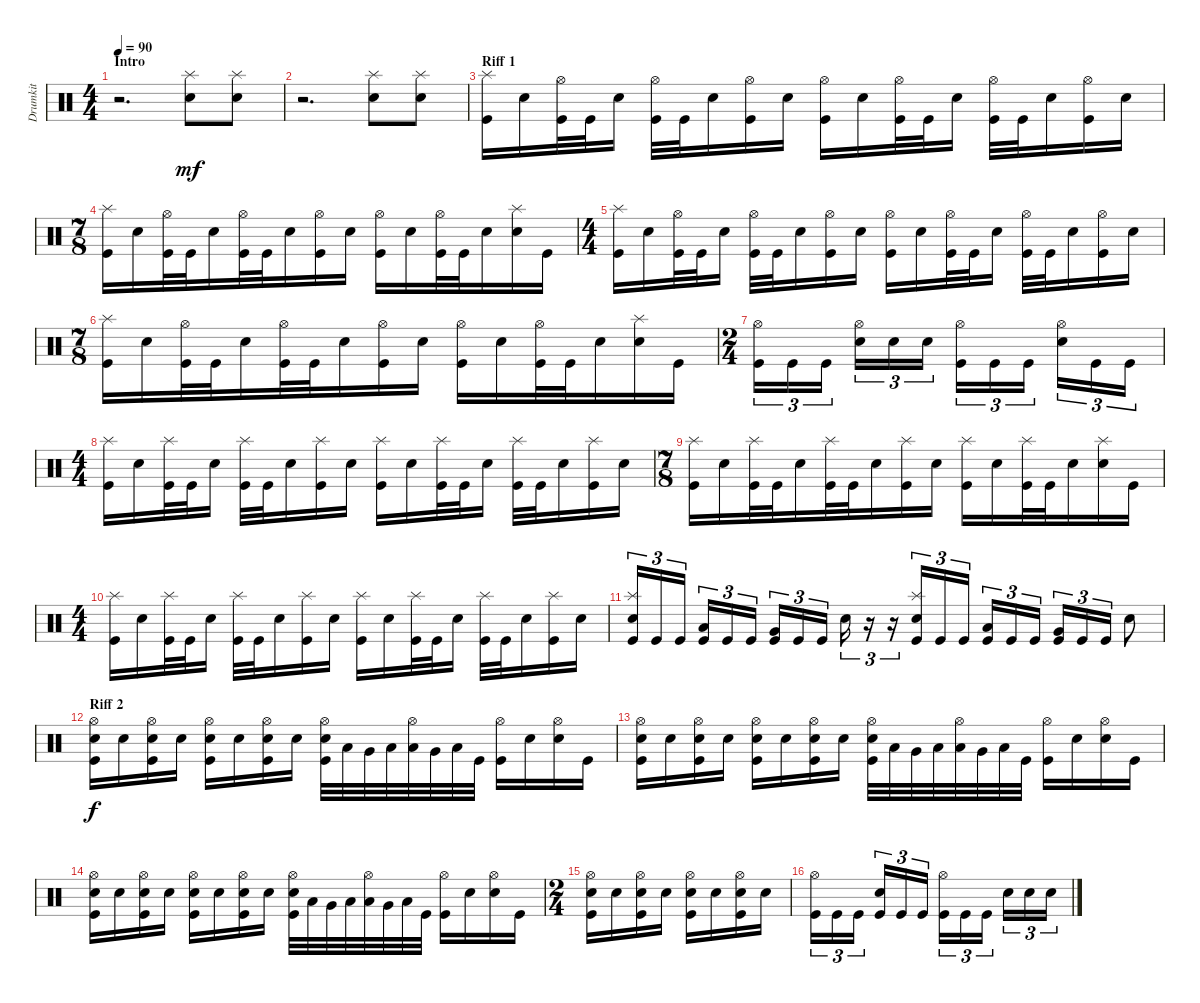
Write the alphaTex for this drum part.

\track ("Drumkit" "Drumkit") {instrument percussion}
\staff {score}
\articulation defaults
\ts (4 4)
\section ("" "Intro")
\tempo 90
\clef neutral
\ks c
r.2{d dy mf} ("Snare (hit) 2" "Splash (hit)").8 ("Snare (hit) 2" "Splash (hit)").8 |
r.2{d} ("Snare (hit) 2" "Splash (hit)").8 ("Snare (hit) 2" "Splash (hit)").8 |
\section ("" "Riff 1")
("Kick (hit)" "Splash (hit)").16 "Snare (hit) 2".16 ("Kick (hit)" "Hi-Hat (open)").32 "Kick (hit)".32 "Snare (hit) 2".16 ("Kick (hit)" "Hi-Hat (open)").32 "Kick (hit)".32 "Snare (hit) 2".16 ("Kick (hit)" "Hi-Hat (open)").16 "Snare (hit) 2".16 ("Kick (hit)" "Hi-Hat (open)").16 "Snare (hit) 2".16 ("Kick (hit)" "Hi-Hat (open)").32 "Kick (hit)".32 "Snare (hit) 2".16 ("Kick (hit)" "Hi-Hat (open)").32 "Kick (hit)".32 "Snare (hit) 2".16 ("Kick (hit)" "Hi-Hat (open)").16 "Snare (hit) 2".16 |
\ts (7 8)
("Kick (hit)" "Splash (hit)").16 "Snare (hit) 2".16 ("Kick (hit)" "Hi-Hat (open)").32 "Kick (hit)".32 "Snare (hit) 2".16 ("Kick (hit)" "Hi-Hat (open)").32 "Kick (hit)".32 "Snare (hit) 2".16 ("Kick (hit)" "Hi-Hat (open)").16 "Snare (hit) 2".16 ("Kick (hit)" "Hi-Hat (open)").16 "Snare (hit) 2".16 ("Kick (hit)" "Hi-Hat (open)").32 "Kick (hit)".32 "Snare (hit) 2".16 ("Splash (hit)" "Snare (hit) 2").16 "Kick (hit)".16 |
\ts (4 4)
("Kick (hit)" "Splash (hit)").16 "Snare (hit) 2".16 ("Kick (hit)" "Hi-Hat (open)").32 "Kick (hit)".32 "Snare (hit) 2".16 ("Kick (hit)" "Hi-Hat (open)").32 "Kick (hit)".32 "Snare (hit) 2".16 ("Kick (hit)" "Hi-Hat (open)").16 "Snare (hit) 2".16 ("Kick (hit)" "Hi-Hat (open)").16 "Snare (hit) 2".16 ("Kick (hit)" "Hi-Hat (open)").32 "Kick (hit)".32 "Snare (hit) 2".16 ("Kick (hit)" "Hi-Hat (open)").32 "Kick (hit)".32 "Snare (hit) 2".16 ("Kick (hit)" "Hi-Hat (open)").16 "Snare (hit) 2".16 |
\ts (7 8)
("Kick (hit)" "Splash (hit)").16 "Snare (hit) 2".16 ("Kick (hit)" "Hi-Hat (open)").32 "Kick (hit)".32 "Snare (hit) 2".16 ("Kick (hit)" "Hi-Hat (open)").32 "Kick (hit)".32 "Snare (hit) 2".16 ("Kick (hit)" "Hi-Hat (open)").16 "Snare (hit) 2".16 ("Kick (hit)" "Hi-Hat (open)").16 "Snare (hit) 2".16 ("Kick (hit)" "Hi-Hat (open)").32 "Kick (hit)".32 "Snare (hit) 2".16 ("Splash (hit)" "Snare (hit) 2").16 "Kick (hit)".16 |
\ts (2 4)
("Kick (hit)" "Hi-Hat (open)").16{tu (3 2)} "Kick (hit)".16{tu (3 2)} "Kick (hit)".16{tu (3 2)} ("Snare (hit) 2" "Hi-Hat (open)").16{tu (3 2)} "Snare (hit) 2".16{tu (3 2)} "Snare (hit) 2".16{tu (3 2)} ("Kick (hit)" "Hi-Hat (open)").16{tu (3 2)} "Kick (hit)".16{tu (3 2)} "Kick (hit)".16{tu (3 2)} ("Snare (hit) 2" "Hi-Hat (open)").16{tu (3 2)} "Kick (hit)".16{tu (3 2)} "Kick (hit)".16{tu (3 2)} |
\ts (4 4)
("Kick (hit)" "Splash (hit)").16 "Snare (hit) 2".16 ("Kick (hit)" "Splash (hit)").32 "Kick (hit)".32 "Snare (hit) 2".16 ("Kick (hit)" "Splash (hit)").32 "Kick (hit)".32 "Snare (hit) 2".16 ("Kick (hit)" "Splash (hit)").16 "Snare (hit) 2".16 ("Kick (hit)" "Splash (hit)").16 "Snare (hit) 2".16 ("Kick (hit)" "Splash (hit)").32 "Kick (hit)".32 "Snare (hit) 2".16 ("Kick (hit)" "Splash (hit)").32 "Kick (hit)".32 "Snare (hit) 2".16 ("Kick (hit)" "Splash (hit)").16 "Snare (hit) 2".16 |
\ts (7 8)
("Kick (hit)" "Splash (hit)").16 "Snare (hit) 2".16 ("Kick (hit)" "Splash (hit)").32 "Kick (hit)".32 "Snare (hit) 2".16 ("Kick (hit)" "Splash (hit)").32 "Kick (hit)".32 "Snare (hit) 2".16 ("Kick (hit)" "Splash (hit)").16 "Snare (hit) 2".16 ("Kick (hit)" "Splash (hit)").16 "Snare (hit) 2".16 ("Kick (hit)" "Splash (hit)").32 "Kick (hit)".32 "Snare (hit) 2".16 ("Splash (hit)" "Snare (hit) 2").16 "Kick (hit)".16 |
\ts (4 4)
("Kick (hit)" "Splash (hit)").16 "Snare (hit) 2".16 ("Kick (hit)" "Splash (hit)").32 "Kick (hit)".32 "Snare (hit) 2".16 ("Kick (hit)" "Splash (hit)").32 "Kick (hit)".32 "Snare (hit) 2".16 ("Kick (hit)" "Splash (hit)").16 "Snare (hit) 2".16 ("Kick (hit)" "Splash (hit)").16 "Snare (hit) 2".16 ("Kick (hit)" "Splash (hit)").32 "Kick (hit)".32 "Snare (hit) 2".16 ("Kick (hit)" "Splash (hit)").32 "Kick (hit)".32 "Snare (hit) 2".16 ("Kick (hit)" "Splash (hit)").16 "Snare (hit) 2".16 |
("Snare (hit) 2" "Splash (hit)" "Kick (hit)").16{tu (3 2)} "Kick (hit)".16{tu (3 2)} "Kick (hit)".16{tu (3 2)} ("Low Tom (hit)" "Kick (hit)").16{tu (3 2)} "Kick (hit)".16{tu (3 2)} "Kick (hit)".16{tu (3 2)} ("Very Low Tom (hit)" "Kick (hit)").16{tu (3 2)} "Kick (hit)".16{tu (3 2)} "Kick (hit)".16{tu (3 2)} "Snare (hit) 2".16{tu (3 2)} r.16{tu (3 2)} r.16{tu (3 2)} ("Snare (hit) 2" "Splash (hit)" "Kick (hit)").16{tu (3 2)} "Kick (hit)".16{tu (3 2)} "Kick (hit)".16{tu (3 2)} ("Low Tom (hit)" "Kick (hit)").16{tu (3 2)} "Kick (hit)".16{tu (3 2)} "Kick (hit)".16{tu (3 2)} ("Very Low Tom (hit)" "Kick (hit)").16{tu (3 2)} "Kick (hit)".16{tu (3 2)} "Kick (hit)".16{tu (3 2)} "Snare (hit) 2".8 |
\section ("" "Riff 2")
("Snare (hit) 2" "Hi-Hat (open)" "Kick (hit)").16{dy f} "Snare (hit) 2".16 ("Snare (hit) 2" "Hi-Hat (open)" "Kick (hit)").16 "Snare (hit) 2".16 ("Snare (hit) 2" "Hi-Hat (open)" "Kick (hit)").16 "Snare (hit) 2".16 ("Snare (hit) 2" "Hi-Hat (open)" "Kick (hit)").16 "Snare (hit) 2".16 ("Snare (hit) 2" "Kick (hit)" "Hi-Hat (open)").32 "Low Tom (hit)".32 "Very Low Tom (hit)".32 "Low Floor Tom (hit)".32 ("Low Tom (hit)" "Hi-Hat (open)").32 "Very Low Tom (hit)".32 "Low Floor Tom (hit)".32 "Kick (hit)".32 ("Hi-Hat (open)" "Kick (hit)").16 "Snare (hit) 2".16 ("Snare (hit) 2" "Hi-Hat (open)").16 "Kick (hit)".16 |
("Snare (hit) 2" "Hi-Hat (open)" "Kick (hit)").16 "Snare (hit) 2".16 ("Snare (hit) 2" "Hi-Hat (open)" "Kick (hit)").16 "Snare (hit) 2".16 ("Snare (hit) 2" "Hi-Hat (open)" "Kick (hit)").16 "Snare (hit) 2".16 ("Snare (hit) 2" "Hi-Hat (open)" "Kick (hit)").16 "Snare (hit) 2".16 ("Snare (hit) 2" "Kick (hit)" "Hi-Hat (open)").32 "Low Tom (hit)".32 "Very Low Tom (hit)".32 "Low Floor Tom (hit)".32 ("Low Tom (hit)" "Hi-Hat (open)").32 "Very Low Tom (hit)".32 "Low Floor Tom (hit)".32 "Kick (hit)".32 ("Hi-Hat (open)" "Kick (hit)").16 "Snare (hit) 2".16 ("Snare (hit) 2" "Hi-Hat (open)").16 "Kick (hit)".16 |
("Snare (hit) 2" "Hi-Hat (open)" "Kick (hit)").16 "Snare (hit) 2".16 ("Snare (hit) 2" "Hi-Hat (open)" "Kick (hit)").16 "Snare (hit) 2".16 ("Snare (hit) 2" "Hi-Hat (open)" "Kick (hit)").16 "Snare (hit) 2".16 ("Snare (hit) 2" "Hi-Hat (open)" "Kick (hit)").16 "Snare (hit) 2".16 ("Snare (hit) 2" "Kick (hit)" "Hi-Hat (open)").32 "Low Tom (hit)".32 "Very Low Tom (hit)".32 "Low Floor Tom (hit)".32 ("Low Tom (hit)" "Hi-Hat (open)").32 "Very Low Tom (hit)".32 "Low Floor Tom (hit)".32 "Kick (hit)".32 ("Hi-Hat (open)" "Kick (hit)").16 "Snare (hit) 2".16 ("Snare (hit) 2" "Hi-Hat (open)").16 "Kick (hit)".16 |
\ts (2 4)
("Snare (hit) 2" "Hi-Hat (open)" "Kick (hit)").16 "Snare (hit) 2".16 ("Snare (hit) 2" "Hi-Hat (open)" "Kick (hit)").16 "Snare (hit) 2".16 ("Snare (hit) 2" "Hi-Hat (open)" "Kick (hit)").16 "Snare (hit) 2".16 ("Snare (hit) 2" "Hi-Hat (open)" "Kick (hit)").16 "Snare (hit) 2".16 |
("Kick (hit)" "Hi-Hat (open)").16{tu (3 2)} "Kick (hit)".16{tu (3 2)} "Kick (hit)".16{tu (3 2)} ("Kick (hit)" "Snare (hit) 2").16{tu (3 2)} "Kick (hit)".16{tu (3 2)} "Kick (hit)".16{tu (3 2)} ("Kick (hit)" "Hi-Hat (open)").16{tu (3 2)} "Kick (hit)".16{tu (3 2)} "Kick (hit)".16{tu (3 2)} "Snare (hit) 2".16{tu (3 2)} "Snare (hit) 2".16{tu (3 2)} "Snare (hit) 2".16{tu (3 2)}
